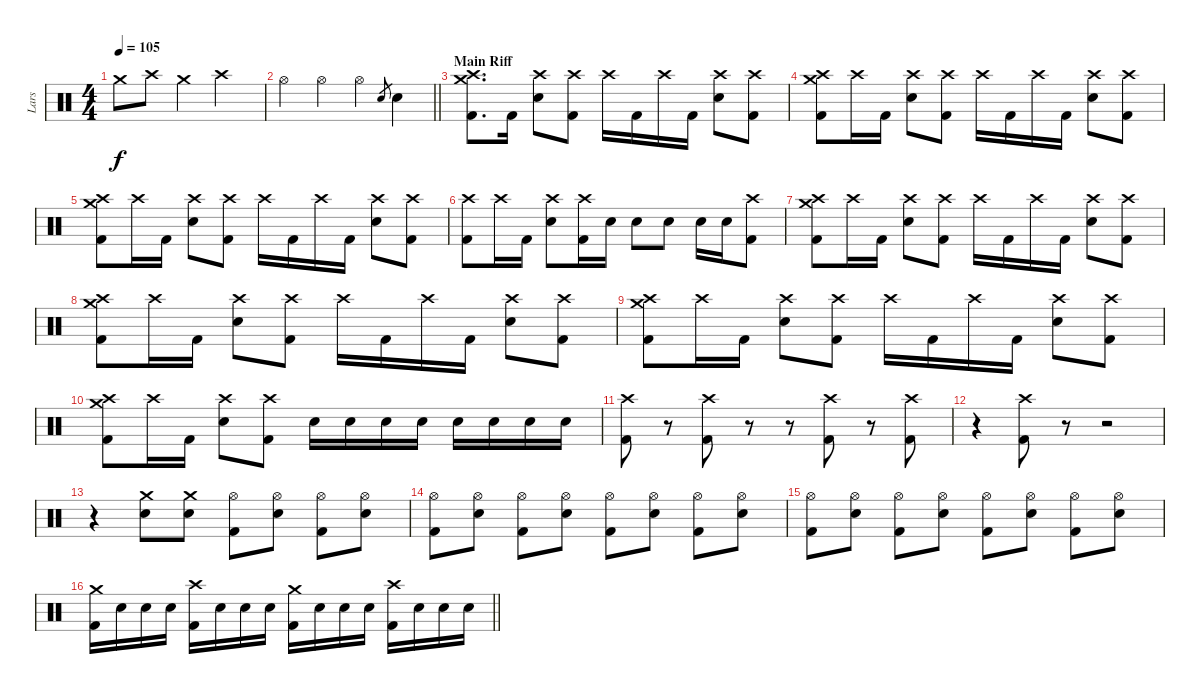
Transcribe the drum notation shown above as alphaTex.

\track ("Lars" "Lars") {instrument percussion}
\staff {score}
\articulation defaults
\ts (4 4)
\tempo 105
\clef neutral
\ks c "Crash medium (hit)".8{dy f} "Crash high (hit)".8 "Crash medium (hit)".4 "Crash high (hit)".2
|
\barLineRight lightlight "Hi-Hat (open)".4 "Hi-Hat (open)".4 "Hi-Hat (open)".4 "Electric Snare (hit)".8{gr} "Electric Snare (hit)".4
|
\section ("" "Main Riff")
("Crash medium (hit)" "Crash high (hit)" "Kick (hit) 2").8{d} "Kick (hit) 2".16 ("Crash high (hit)" "Electric Snare (hit)").8 ("Crash high (hit)" "Kick (hit) 2").8 "Crash high (hit)".16 "Kick (hit) 2".16 "Crash high (hit)".16 "Kick (hit) 2".16 ("Crash high (hit)" "Electric Snare (hit)").8 ("Crash high (hit)" "Kick (hit) 2").8 |
("Crash high (hit)" "Crash medium (hit)" "Kick (hit) 2").8 "Crash high (hit)".16 "Kick (hit) 2".16 ("Crash high (hit)" "Electric Snare (hit)").8 ("Crash high (hit)" "Kick (hit) 2").8 "Crash high (hit)".16 "Kick (hit) 2".16 "Crash high (hit)".16 "Kick (hit) 2".16 ("Crash high (hit)" "Electric Snare (hit)").8 ("Crash high (hit)" "Kick (hit) 2").8 |
("Crash high (hit)" "Crash medium (hit)" "Kick (hit) 2").8 "Crash high (hit)".16 "Kick (hit) 2".16 ("Crash high (hit)" "Electric Snare (hit)").8 ("Crash high (hit)" "Kick (hit) 2").8 "Crash high (hit)".16 "Kick (hit) 2".16 "Crash high (hit)".16 "Kick (hit) 2".16 ("Crash high (hit)" "Electric Snare (hit)").8 ("Crash high (hit)" "Kick (hit) 2").8 |
("Crash high (hit)" "Kick (hit) 2").8 "Crash high (hit)".16 "Kick (hit) 2".16 ("Crash high (hit)" "Electric Snare (hit)").8 ("Crash high (hit)" "Kick (hit) 2").16 "Electric Snare (hit)".16 "Electric Snare (hit)".8 "Electric Snare (hit)".8 "Electric Snare (hit)".16 "Electric Snare (hit)".16 ("Crash high (hit)" "Kick (hit) 2").8 |
("Crash medium (hit)" "Crash high (hit)" "Kick (hit) 2").8 "Crash high (hit)".16 "Kick (hit) 2".16 ("Crash high (hit)" "Electric Snare (hit)").8 ("Crash high (hit)" "Kick (hit) 2").8 "Crash high (hit)".16 "Kick (hit) 2".16 "Crash high (hit)".16 "Kick (hit) 2".16 ("Crash high (hit)" "Electric Snare (hit)").8 ("Crash high (hit)" "Kick (hit) 2").8 |
("Crash high (hit)" "Crash medium (hit)" "Kick (hit) 2").8 "Crash high (hit)".16 "Kick (hit) 2".16 ("Crash high (hit)" "Electric Snare (hit)").8 ("Crash high (hit)" "Kick (hit) 2").8 "Crash high (hit)".16 "Kick (hit) 2".16 "Crash high (hit)".16 "Kick (hit) 2".16 ("Crash high (hit)" "Electric Snare (hit)").8 ("Crash high (hit)" "Kick (hit) 2").8 |
("Crash high (hit)" "Crash medium (hit)" "Kick (hit) 2").8 "Crash high (hit)".16 "Kick (hit) 2".16 ("Crash high (hit)" "Electric Snare (hit)").8 ("Crash high (hit)" "Kick (hit) 2").8 "Crash high (hit)".16 "Kick (hit) 2".16 "Crash high (hit)".16 "Kick (hit) 2".16 ("Crash high (hit)" "Electric Snare (hit)").8 ("Crash high (hit)" "Kick (hit) 2").8 |
("Crash high (hit)" "Crash medium (hit)" "Kick (hit) 2").8 "Crash high (hit)".16 "Kick (hit) 2".16 ("Crash high (hit)" "Electric Snare (hit)").8 ("Crash high (hit)" "Kick (hit) 2").8 "Electric Snare (hit)".16 "Electric Snare (hit)".16 "Electric Snare (hit)".16 "Electric Snare (hit)".16 "Electric Snare (hit)".16 "Electric Snare (hit)".16 "Electric Snare (hit)".16 "Electric Snare (hit)".16 |
("Crash high (hit)" "Kick (hit) 2").8 r.8 ("Crash high (hit)" "Kick (hit) 2").8 r.8 r.8 ("Crash high (hit)" "Kick (hit) 2").8 r.8 ("Crash high (hit)" "Kick (hit) 2").8 |
r.4 ("Crash high (hit)" "Kick (hit) 2").8 r.8 r.2 |
r.4 ("Crash medium (hit)" "Electric Snare (hit)").8 ("Crash medium (hit)" "Electric Snare (hit)").8 ("Hi-Hat (open)" "Kick (hit) 2").8 ("Hi-Hat (open)" "Electric Snare (hit)").8 ("Hi-Hat (open)" "Kick (hit) 2").8 ("Hi-Hat (open)" "Electric Snare (hit)").8 |
("Hi-Hat (open)" "Kick (hit) 2").8 ("Hi-Hat (open)" "Electric Snare (hit)").8 ("Hi-Hat (open)" "Kick (hit) 2").8 ("Hi-Hat (open)" "Electric Snare (hit)").8 ("Hi-Hat (open)" "Kick (hit) 2").8 ("Hi-Hat (open)" "Electric Snare (hit)").8 ("Hi-Hat (open)" "Kick (hit) 2").8 ("Hi-Hat (open)" "Electric Snare (hit)").8 |
("Hi-Hat (open)" "Kick (hit) 2").8 ("Hi-Hat (open)" "Electric Snare (hit)").8 ("Hi-Hat (open)" "Kick (hit) 2").8 ("Hi-Hat (open)" "Electric Snare (hit)").8 ("Hi-Hat (open)" "Kick (hit) 2").8 ("Hi-Hat (open)" "Electric Snare (hit)").8 ("Hi-Hat (open)" "Kick (hit) 2").8 ("Hi-Hat (open)" "Electric Snare (hit)").8 |
\barLineRight lightlight
("Crash medium (hit)" "Kick (hit) 2").16 "Electric Snare (hit)".16 "Electric Snare (hit)".16 "Electric Snare (hit)".16 ("Crash high (hit)" "Kick (hit) 2").16 "Electric Snare (hit)".16 "Electric Snare (hit)".16 "Electric Snare (hit)".16 ("Crash medium (hit)" "Kick (hit) 2").16 "Electric Snare (hit)".16 "Electric Snare (hit)".16 "Electric Snare (hit)".16 ("Crash high (hit)" "Kick (hit) 2").16 "Electric Snare (hit)".16 "Electric Snare (hit)".16 "Electric Snare (hit)".16
